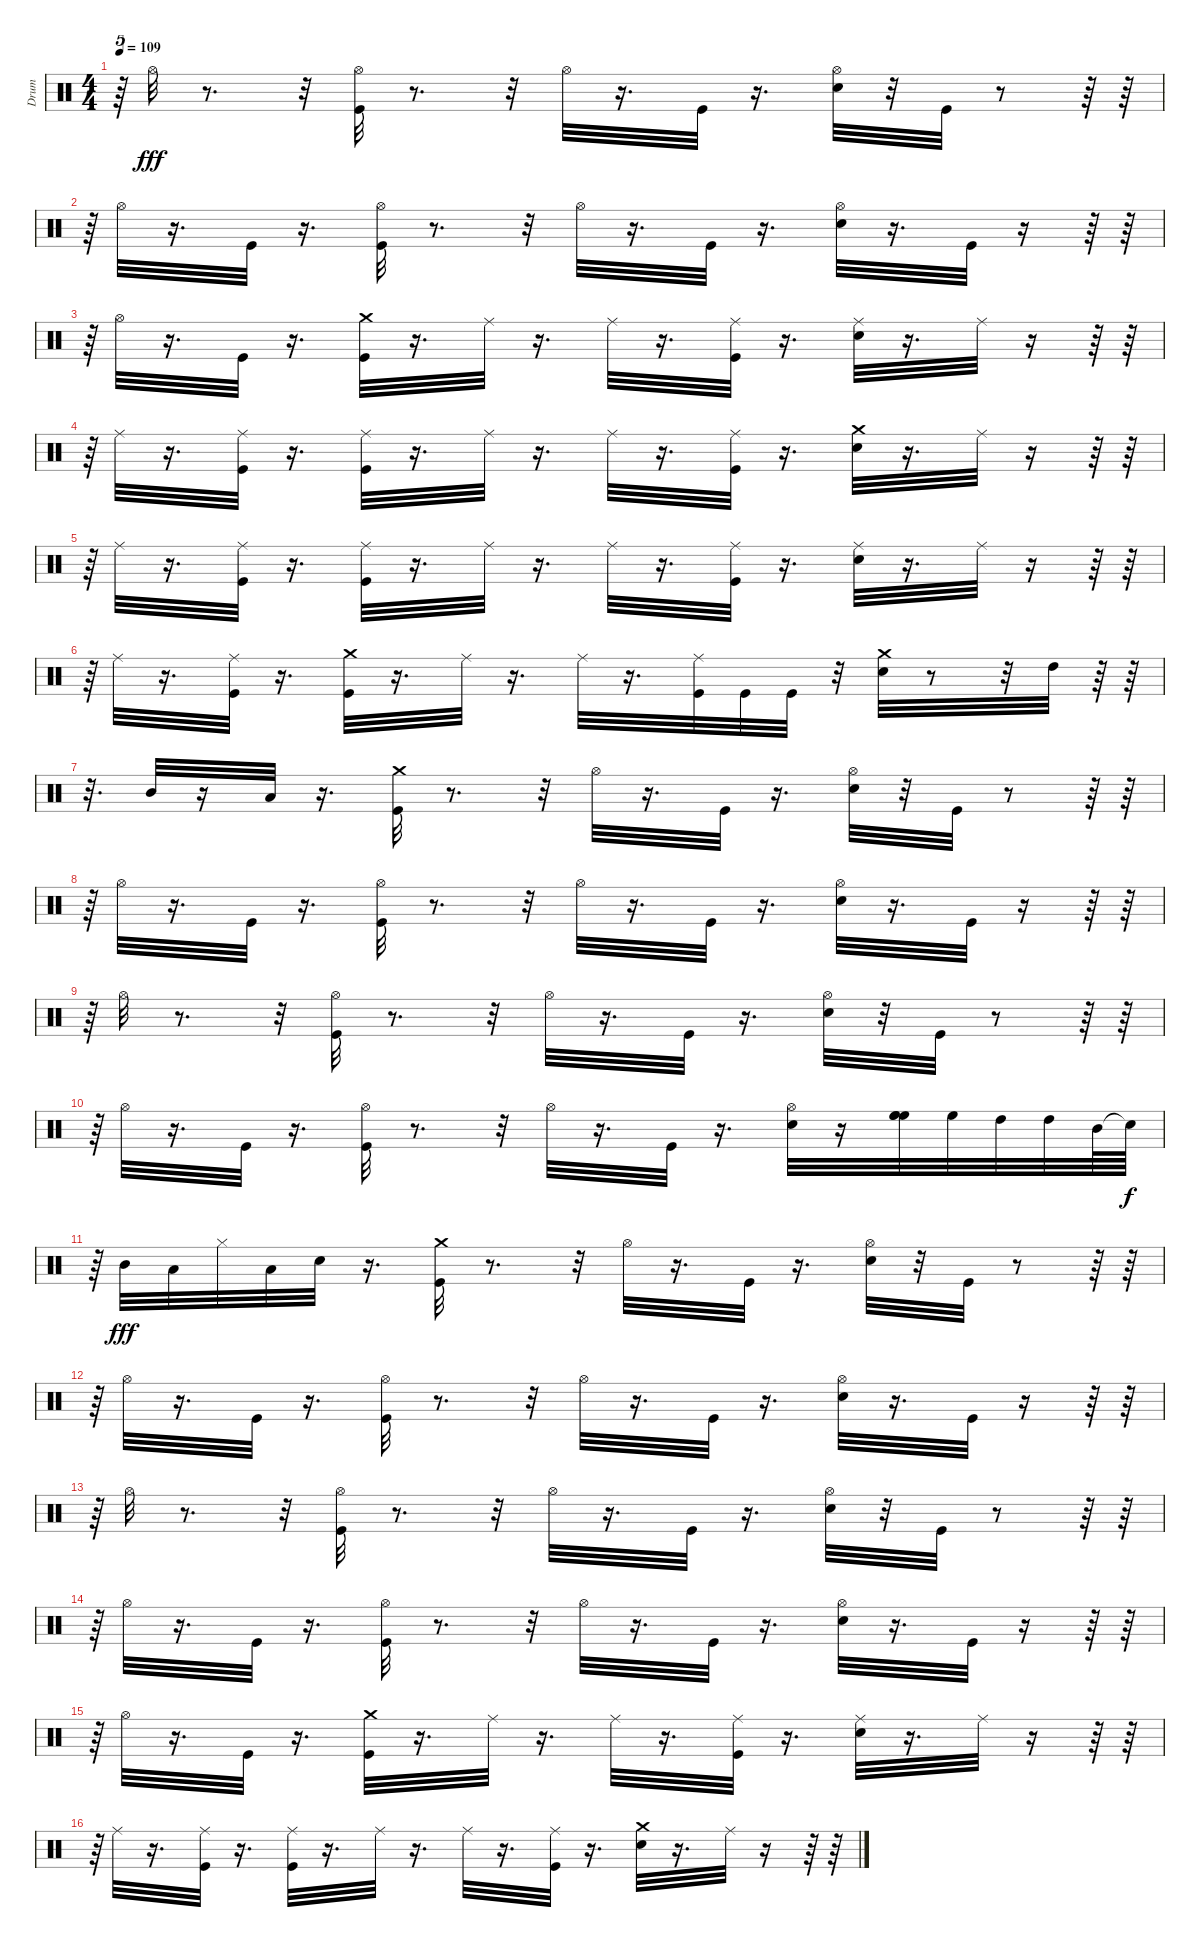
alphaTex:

\track ("Drum" "Drum") {instrument percussion}
\staff {score}
\articulation defaults
\ts (4 4)
\tempo 109
\clef neutral
\ks c
r.64{tu (5 4) dy fff} "Hi-Hat (open)".32 r.8{d} r.32 ("Kick (hit)" "Hi-Hat (open)").32 r.8{d} r.32 "Hi-Hat (open)".32 r.16{d} "Kick (hit)".32 r.16{d} ("Hi-Hat (open)" "Snare (hit) 2").32 r.32 "Kick (hit)".32 r.8 r.64 r.64 |
r.64{tu (5 4)} "Hi-Hat (open)".32 r.16{d} "Kick (hit)".32 r.16{d} ("Kick (hit)" "Hi-Hat (open)").32 r.8{d} r.32 "Hi-Hat (open)".32 r.16{d} "Kick (hit)".32 r.16{d} ("Hi-Hat (open)" "Snare (hit) 2").32 r.16{d} "Kick (hit)".32 r.16 r.64 r.64 |
r.64{tu (5 4)} "Hi-Hat (open)".32 r.16{d} "Kick (hit)".32 r.16{d} ("Crash medium (hit)" "Kick (hit)").32 r.16{d} "Ride (middle)".32 r.16{d} "Ride (middle)".32 r.16{d} ("Ride (middle)" "Kick (hit)").32 r.16{d} ("Ride (middle)" "Snare (hit) 2").32 r.16{d} "Ride (middle)".32 r.16 r.64 r.64 |
r.64{tu (5 4)} "Ride (middle)".32 r.16{d} ("Kick (hit)" "Ride (middle)").32 r.16{d} ("Kick (hit)" "Ride (middle)").32 r.16{d} "Ride (middle)".32 r.16{d} "Ride (middle)".32 r.16{d} ("Kick (hit)" "Ride (middle)").32 r.16{d} ("Crash medium (hit)" "Snare (hit) 2").32 r.16{d} "Ride (middle)".32 r.16 r.64 r.64 |
r.64{tu (5 4)} "Ride (middle)".32 r.16{d} ("Kick (hit)" "Ride (middle)").32 r.16{d} ("Kick (hit)" "Ride (middle)").32 r.16{d} "Ride (middle)".32 r.16{d} "Ride (middle)".32 r.16{d} ("Kick (hit)" "Ride (middle)").32 r.16{d} ("Ride (middle)" "Snare (hit) 2").32 r.16{d} "Ride (middle)".32 r.16 r.64 r.64 |
r.64{tu (5 4)} "Ride (middle)".32 r.16{d} ("Ride (middle)" "Kick (hit)").32 r.16{d} ("Kick (hit)" "Crash medium (hit)").32 r.16{d} "Ride (middle)".32 r.16{d} "Ride (middle)".32 r.16{d} ("Kick (hit)" "Ride (middle)").32 "Kick (hit)".32 "Kick (hit)".32 r.32 ("Crash medium (hit)" "Snare (hit) 2").32 r.8 r.32 "High Tom (hit)".32 r.64 r.64 |
r.32{d} "Mid Tom (hit)".32 r.16 "Low Tom (hit)".32 r.16{d} ("Crash medium (hit)" "Kick (hit)").32 r.8{d} r.32 "Hi-Hat (open)".32 r.16{d} "Kick (hit)".32 r.16{d} ("Snare (hit) 2" "Hi-Hat (open)").32 r.32 "Kick (hit)".32 r.8 r.64 r.64 |
r.64{tu (5 4)} "Hi-Hat (open)".32 r.16{d} "Kick (hit)".32 r.16{d} ("Hi-Hat (open)" "Kick (hit)").32 r.8{d} r.32 "Hi-Hat (open)".32 r.16{d} "Kick (hit)".32 r.16{d} ("Hi-Hat (open)" "Snare (hit) 2").32 r.16{d} "Kick (hit)".32 r.16 r.64 r.64 |
r.64{tu (5 4)} "Hi-Hat (open)".32 r.8{d} r.32 ("Hi-Hat (open)" "Kick (hit)").32 r.8{d} r.32 "Hi-Hat (open)".32 r.16{d} "Kick (hit)".32 r.16{d} ("Snare (hit) 2" "Hi-Hat (open)").32 r.32 "Kick (hit)".32 r.8 r.64 r.64 |
r.64{tu (5 4)} "Hi-Hat (open)".32 r.16{d} "Kick (hit)".32 r.16{d} ("Hi-Hat (open)" "Kick (hit)").32 r.8{d} r.32 "Hi-Hat (open)".32 r.16{d} "Kick (hit)".32 r.16{d} ("Hi-Hat (open)" "Snare (hit) 2").32 r.16 ("High Floor Tom (hit)" "High Floor Tom (hit)" "High Floor Tom (hit)").32 "High Floor Tom (hit)".32 "High Tom (hit)".32 "High Tom (hit)".32 "Mid Tom (hit)".64 "Snare (hit)"{t}.64{dy f} |
r.64{tu (5 4)} "Mid Tom (hit)".32{dy fff} "Low Tom (hit)".32 "Hi-Hat (closed)".32 "Low Floor Tom (hit)".32 "Snare (hit) 2".32 r.16{d} ("Kick (hit)" "Crash medium (hit)").32 r.8{d} r.32 "Hi-Hat (open)".32 r.16{d} "Kick (hit)".32 r.16{d} ("Hi-Hat (open)" "Snare (hit) 2").32 r.32 "Kick (hit)".32 r.8 r.64 r.64 |
r.64{tu (5 4)} "Hi-Hat (open)".32 r.16{d} "Kick (hit)".32 r.16{d} ("Kick (hit)" "Hi-Hat (open)").32 r.8{d} r.32 "Hi-Hat (open)".32 r.16{d} "Kick (hit)".32 r.16{d} ("Snare (hit) 2" "Hi-Hat (open)").32 r.16{d} "Kick (hit)".32 r.16 r.64 r.64 |
r.64{tu (5 4)} "Hi-Hat (open)".32 r.8{d} r.32 ("Hi-Hat (open)" "Kick (hit)").32 r.8{d} r.32 "Hi-Hat (open)".32 r.16{d} "Kick (hit)".32 r.16{d} ("Snare (hit) 2" "Hi-Hat (open)").32 r.32 "Kick (hit)".32 r.8 r.64 r.64 |
r.64{tu (5 4)} "Hi-Hat (open)".32 r.16{d} "Kick (hit)".32 r.16{d} ("Hi-Hat (open)" "Kick (hit)").32 r.8{d} r.32 "Hi-Hat (open)".32 r.16{d} "Kick (hit)".32 r.16{d} ("Snare (hit) 2" "Hi-Hat (open)").32 r.16{d} "Kick (hit)".32 r.16 r.64 r.64 |
r.64{tu (5 4)} "Hi-Hat (open)".32 r.16{d} "Kick (hit)".32 r.16{d} ("Crash medium (hit)" "Kick (hit)").32 r.16{d} "Ride (middle)".32 r.16{d} "Ride (middle)".32 r.16{d} ("Kick (hit)" "Ride (middle)").32 r.16{d} ("Ride (middle)" "Snare (hit) 2").32 r.16{d} "Ride (middle)".32 r.16 r.64 r.64 |
r.64{tu (5 4)} "Ride (middle)".32 r.16{d} ("Ride (middle)" "Kick (hit)").32 r.16{d} ("Kick (hit)" "Ride (middle)").32 r.16{d} "Ride (middle)".32 r.16{d} "Ride (middle)".32 r.16{d} ("Kick (hit)" "Ride (middle)").32 r.16{d} ("Snare (hit) 2" "Crash medium (hit)").32 r.16{d} "Ride (middle)".32 r.16 r.64 r.64
